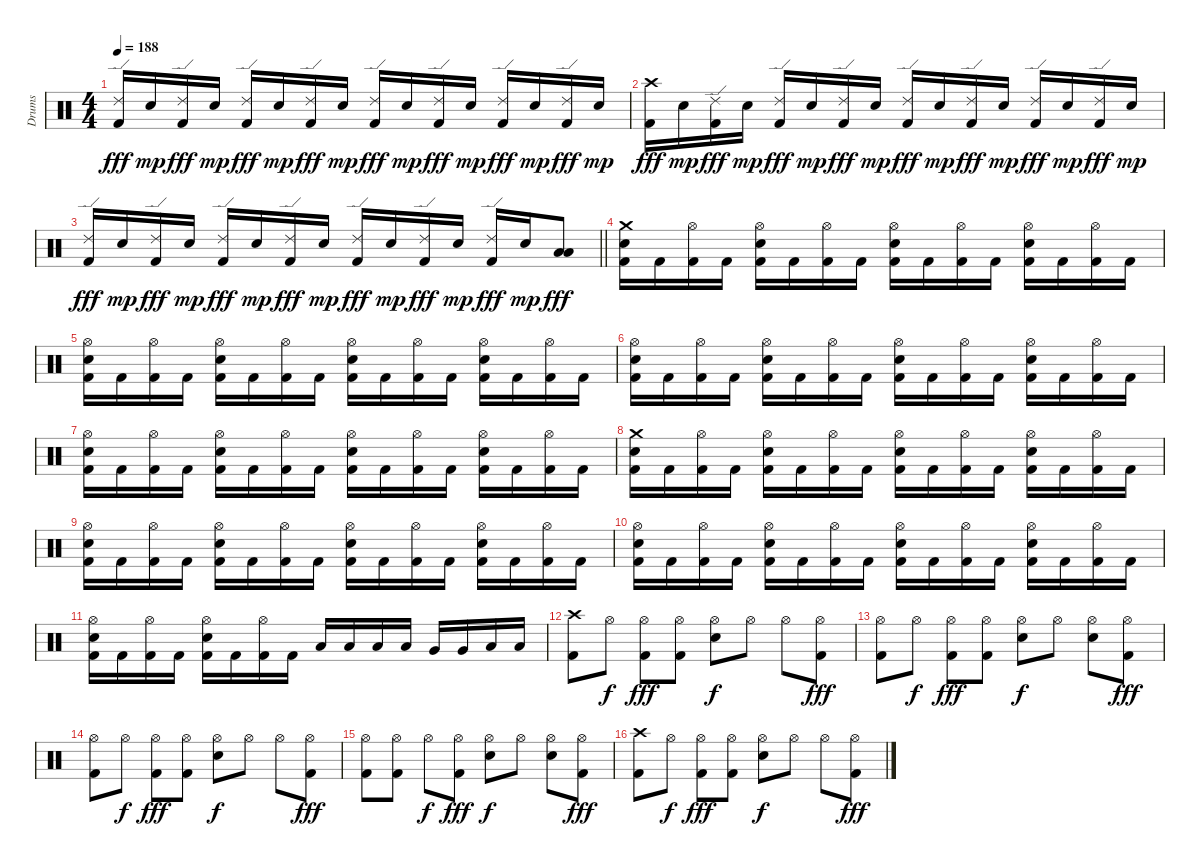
\track ("Drums" "Drums") {instrument percussion}
\staff {score}
\articulation defaults
\ts (4 4)
\tempo 188
\clef neutral
\ks c
("Ride (edge) 2" "Kick (hit) 2").16{dy fff} "Electric Snare (hit)".16{dy mp} ("Ride (edge) 2" "Kick (hit) 2").16{dy fff} "Electric Snare (hit)".16{dy mp} ("Ride (edge) 2" "Kick (hit) 2").16{dy fff} "Electric Snare (hit)".16{dy mp} ("Ride (edge) 2" "Kick (hit) 2").16{dy fff} "Electric Snare (hit)".16{dy mp} ("Ride (edge) 2" "Kick (hit) 2").16{dy fff} "Electric Snare (hit)".16{dy mp} ("Ride (edge) 2" "Kick (hit) 2").16{dy fff} "Electric Snare (hit)".16{dy mp} ("Ride (edge) 2" "Kick (hit) 2").16{dy fff} "Electric Snare (hit)".16{dy mp} ("Ride (edge) 2" "Kick (hit) 2").16{dy fff} "Electric Snare (hit)".16{dy mp} |
("Crash high (hit)" "Kick (hit) 2").16{dy fff} "Electric Snare (hit)".16{dy mp} ("Ride (edge) 2" "Kick (hit) 2").16{dy fff} "Electric Snare (hit)".16{dy mp} ("Ride (edge) 2" "Kick (hit) 2").16{dy fff} "Electric Snare (hit)".16{dy mp} ("Ride (edge) 2" "Kick (hit) 2").16{dy fff} "Electric Snare (hit)".16{dy mp} ("Ride (edge) 2" "Kick (hit) 2").16{dy fff} "Electric Snare (hit)".16{dy mp} ("Ride (edge) 2" "Kick (hit) 2").16{dy fff} "Electric Snare (hit)".16{dy mp} ("Ride (edge) 2" "Kick (hit) 2").16{dy fff} "Electric Snare (hit)".16{dy mp} ("Ride (edge) 2" "Kick (hit) 2").16{dy fff} "Electric Snare (hit)".16{dy mp} |
\barLineRight lightlight
("Ride (edge) 2" "Kick (hit) 2").16{dy fff} "Electric Snare (hit)".16{dy mp} ("Ride (edge) 2" "Kick (hit) 2").16{dy fff} "Electric Snare (hit)".16{dy mp} ("Ride (edge) 2" "Kick (hit) 2").16{dy fff} "Electric Snare (hit)".16{dy mp} ("Ride (edge) 2" "Kick (hit) 2").16{dy fff} "Electric Snare (hit)".16{dy mp} ("Ride (edge) 2" "Kick (hit) 2").16{dy fff} "Electric Snare (hit)".16{dy mp} ("Ride (edge) 2" "Kick (hit) 2").16{dy fff} "Electric Snare (hit)".16{dy mp} ("Ride (edge) 2" "Kick (hit) 2").16{dy fff} "Electric Snare (hit)".16{dy mp} ("Low Tom (hit)" "Low Tom (hit)").8{dy fff} |
("Crash medium (hit)" "Electric Snare (hit)" "Kick (hit) 2").16 "Kick (hit) 2".16 ("Hi-Hat (open)" "Kick (hit) 2").16 "Kick (hit) 2".16 ("Hi-Hat (open)" "Electric Snare (hit)" "Kick (hit) 2").16 "Kick (hit) 2".16 ("Hi-Hat (open)" "Kick (hit) 2").16 "Kick (hit) 2".16 ("Hi-Hat (open)" "Electric Snare (hit)" "Kick (hit) 2").16 "Kick (hit) 2".16 ("Hi-Hat (open)" "Kick (hit) 2").16 "Kick (hit) 2".16 ("Hi-Hat (open)" "Electric Snare (hit)" "Kick (hit) 2").16 "Kick (hit) 2".16 ("Hi-Hat (open)" "Kick (hit) 2").16 "Kick (hit) 2".16 |
("Hi-Hat (open)" "Electric Snare (hit)" "Kick (hit) 2").16 "Kick (hit) 2".16 ("Hi-Hat (open)" "Kick (hit) 2").16 "Kick (hit) 2".16 ("Hi-Hat (open)" "Electric Snare (hit)" "Kick (hit) 2").16 "Kick (hit) 2".16 ("Hi-Hat (open)" "Kick (hit) 2").16 "Kick (hit) 2".16 ("Hi-Hat (open)" "Electric Snare (hit)" "Kick (hit) 2").16 "Kick (hit) 2".16 ("Hi-Hat (open)" "Kick (hit) 2").16 "Kick (hit) 2".16 ("Hi-Hat (open)" "Electric Snare (hit)" "Kick (hit) 2").16 "Kick (hit) 2".16 ("Hi-Hat (open)" "Kick (hit) 2").16 "Kick (hit) 2".16 |
("Hi-Hat (open)" "Electric Snare (hit)" "Kick (hit) 2").16 "Kick (hit) 2".16 ("Hi-Hat (open)" "Kick (hit) 2").16 "Kick (hit) 2".16 ("Hi-Hat (open)" "Electric Snare (hit)" "Kick (hit) 2").16 "Kick (hit) 2".16 ("Hi-Hat (open)" "Kick (hit) 2").16 "Kick (hit) 2".16 ("Hi-Hat (open)" "Electric Snare (hit)" "Kick (hit) 2").16 "Kick (hit) 2".16 ("Hi-Hat (open)" "Kick (hit) 2").16 "Kick (hit) 2".16 ("Hi-Hat (open)" "Electric Snare (hit)" "Kick (hit) 2").16 "Kick (hit) 2".16 ("Hi-Hat (open)" "Kick (hit) 2").16 "Kick (hit) 2".16 |
("Hi-Hat (open)" "Electric Snare (hit)" "Kick (hit) 2").16 "Kick (hit) 2".16 ("Hi-Hat (open)" "Kick (hit) 2").16 "Kick (hit) 2".16 ("Hi-Hat (open)" "Electric Snare (hit)" "Kick (hit) 2").16 "Kick (hit) 2".16 ("Hi-Hat (open)" "Kick (hit) 2").16 "Kick (hit) 2".16 ("Hi-Hat (open)" "Electric Snare (hit)" "Kick (hit) 2").16 "Kick (hit) 2".16 ("Hi-Hat (open)" "Kick (hit) 2").16 "Kick (hit) 2".16 ("Hi-Hat (open)" "Electric Snare (hit)" "Kick (hit) 2").16 "Kick (hit) 2".16 ("Hi-Hat (open)" "Kick (hit) 2").16 "Kick (hit) 2".16 |
("Crash medium (hit)" "Electric Snare (hit)" "Kick (hit) 2").16 "Kick (hit) 2".16 ("Hi-Hat (open)" "Kick (hit) 2").16 "Kick (hit) 2".16 ("Hi-Hat (open)" "Electric Snare (hit)" "Kick (hit) 2").16 "Kick (hit) 2".16 ("Hi-Hat (open)" "Kick (hit) 2").16 "Kick (hit) 2".16 ("Hi-Hat (open)" "Electric Snare (hit)" "Kick (hit) 2").16 "Kick (hit) 2".16 ("Hi-Hat (open)" "Kick (hit) 2").16 "Kick (hit) 2".16 ("Hi-Hat (open)" "Electric Snare (hit)" "Kick (hit) 2").16 "Kick (hit) 2".16 ("Hi-Hat (open)" "Kick (hit) 2").16 "Kick (hit) 2".16 |
("Hi-Hat (open)" "Electric Snare (hit)" "Kick (hit) 2").16 "Kick (hit) 2".16 ("Hi-Hat (open)" "Kick (hit) 2").16 "Kick (hit) 2".16 ("Hi-Hat (open)" "Electric Snare (hit)" "Kick (hit) 2").16 "Kick (hit) 2".16 ("Hi-Hat (open)" "Kick (hit) 2").16 "Kick (hit) 2".16 ("Hi-Hat (open)" "Electric Snare (hit)" "Kick (hit) 2").16 "Kick (hit) 2".16 ("Hi-Hat (open)" "Kick (hit) 2").16 "Kick (hit) 2".16 ("Hi-Hat (open)" "Electric Snare (hit)" "Kick (hit) 2").16 "Kick (hit) 2".16 ("Hi-Hat (open)" "Kick (hit) 2").16 "Kick (hit) 2".16 |
("Hi-Hat (open)" "Electric Snare (hit)" "Kick (hit) 2").16 "Kick (hit) 2".16 ("Hi-Hat (open)" "Kick (hit) 2").16 "Kick (hit) 2".16 ("Hi-Hat (open)" "Electric Snare (hit)" "Kick (hit) 2").16 "Kick (hit) 2".16 ("Hi-Hat (open)" "Kick (hit) 2").16 "Kick (hit) 2".16 ("Hi-Hat (open)" "Electric Snare (hit)" "Kick (hit) 2").16 "Kick (hit) 2".16 ("Hi-Hat (open)" "Kick (hit) 2").16 "Kick (hit) 2".16 ("Hi-Hat (open)" "Electric Snare (hit)" "Kick (hit) 2").16 "Kick (hit) 2".16 ("Hi-Hat (open)" "Kick (hit) 2").16 "Kick (hit) 2".16 |
("Hi-Hat (open)" "Electric Snare (hit)" "Kick (hit) 2").16 "Kick (hit) 2".16 ("Hi-Hat (open)" "Kick (hit) 2").16 "Kick (hit) 2".16 ("Hi-Hat (open)" "Electric Snare (hit)" "Kick (hit) 2").16 "Kick (hit) 2".16 ("Hi-Hat (open)" "Kick (hit) 2").16 "Kick (hit) 2".16 "Low Tom (hit)".16 "Low Tom (hit)".16 "Low Tom (hit)".16 "Low Tom (hit)".16 "Very Low Tom (hit)".16 "Very Low Tom (hit)".16 "Low Floor Tom (hit)".16 "Low Floor Tom (hit)".16 |
("Crash high (hit)" "Kick (hit) 2").8 "Hi-Hat (open)".8{dy f} ("Hi-Hat (open)" "Kick (hit) 2").8{dy fff} ("Hi-Hat (open)" "Kick (hit) 2").8 ("Hi-Hat (open)" "Electric Snare (hit)").8{dy f} "Hi-Hat (open)".8 "Hi-Hat (open)".8 ("Hi-Hat (open)" "Kick (hit) 2").8{dy fff} |
("Hi-Hat (open)" "Kick (hit) 2").8 "Hi-Hat (open)".8{dy f} ("Hi-Hat (open)" "Kick (hit) 2").8{dy fff} ("Hi-Hat (open)" "Kick (hit) 2").8 ("Hi-Hat (open)" "Electric Snare (hit)").8{dy f} "Hi-Hat (open)".8 ("Hi-Hat (open)" "Electric Snare (hit)").8 ("Hi-Hat (open)" "Kick (hit) 2").8{dy fff} |
("Hi-Hat (open)" "Kick (hit) 2").8 "Hi-Hat (open)".8{dy f} ("Hi-Hat (open)" "Kick (hit) 2").8{dy fff} ("Hi-Hat (open)" "Kick (hit) 2").8 ("Hi-Hat (open)" "Electric Snare (hit)").8{dy f} "Hi-Hat (open)".8 "Hi-Hat (open)".8 ("Hi-Hat (open)" "Kick (hit) 2").8{dy fff} |
("Hi-Hat (open)" "Kick (hit) 2").8 ("Hi-Hat (open)" "Kick (hit) 2").8 "Hi-Hat (open)".8{dy f} ("Hi-Hat (open)" "Kick (hit) 2").8{dy fff} ("Hi-Hat (open)" "Electric Snare (hit)").8{dy f} "Hi-Hat (open)".8 ("Hi-Hat (open)" "Electric Snare (hit)").8 ("Hi-Hat (open)" "Kick (hit) 2").8{dy fff} |
("Crash high (hit)" "Kick (hit) 2").8 "Hi-Hat (open)".8{dy f} ("Hi-Hat (open)" "Kick (hit) 2").8{dy fff} ("Hi-Hat (open)" "Kick (hit) 2").8 ("Hi-Hat (open)" "Electric Snare (hit)").8{dy f} "Hi-Hat (open)".8 "Hi-Hat (open)".8 ("Hi-Hat (open)" "Kick (hit) 2").8{dy fff}
